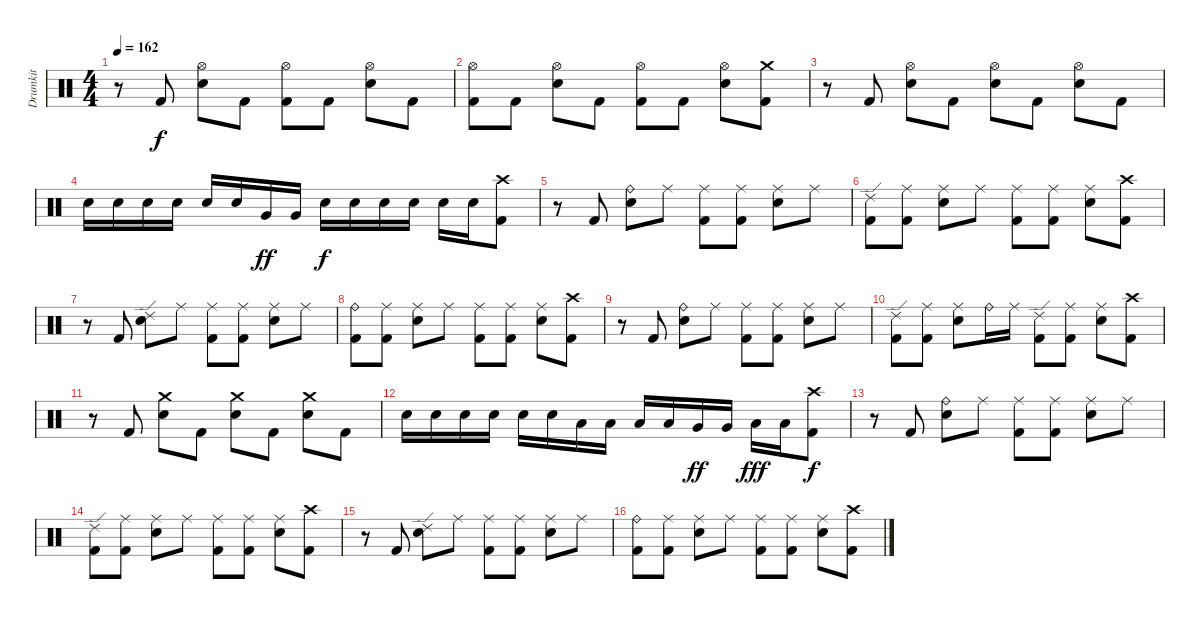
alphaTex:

\track ("Drumkit" "Drumkit") {instrument percussion}
\staff {score}
\articulation defaults
\ts (4 4)
\tempo 162
\clef neutral
\ks c
r.8{dy f} "Kick (hit) 2".8 ("Hi-Hat (open)" "Electric Snare (hit)").8 "Kick (hit) 2".8 ("Hi-Hat (open)" "Kick (hit) 2").8 "Kick (hit) 2".8 ("Hi-Hat (open)" "Electric Snare (hit)").8 "Kick (hit) 2".8 |
("Hi-Hat (open)" "Kick (hit) 2").8 "Kick (hit) 2".8 ("Hi-Hat (open)" "Electric Snare (hit)").8 "Kick (hit) 2".8 ("Hi-Hat (open)" "Kick (hit) 2").8 "Kick (hit) 2".8 ("Hi-Hat (open)" "Electric Snare (hit)").8 ("Crash medium (hit)" "Kick (hit) 2").8 |
r.8 "Kick (hit) 2".8 ("Hi-Hat (open)" "Electric Snare (hit)").8 "Kick (hit) 2".8 ("Hi-Hat (open)" "Electric Snare (hit)").8 "Kick (hit) 2".8 ("Hi-Hat (open)" "Electric Snare (hit)").8 "Kick (hit) 2".8 |
"Electric Snare (hit)".16 "Electric Snare (hit)".16 "Electric Snare (hit)".16 "Electric Snare (hit)".16 "Electric Snare (hit)".16 "Electric Snare (hit)".16 "Very Low Tom (hit)".16{dy ff} "Very Low Tom (hit)".16 "Electric Snare (hit)".16{dy f} "Electric Snare (hit)".16 "Electric Snare (hit)".16 "Electric Snare (hit)".16 "Electric Snare (hit)".16 "Electric Snare (hit)".16 ("Crash high (hit)" "Kick (hit) 2").8 |
r.8 "Kick (hit) 2".8 ("Ride (bell)" "Electric Snare (hit)").8 "Ride (middle)".8 ("Ride (middle)" "Kick (hit) 2").8 ("Ride (middle)" "Kick (hit) 2").8 ("Ride (middle)" "Electric Snare (hit)").8 "Ride (middle)".8 |
("Ride (edge) 2" "Kick (hit) 2").8 ("Ride (middle)" "Kick (hit) 2").8 ("Ride (middle)" "Electric Snare (hit)").8 "Ride (middle)".8 ("Ride (middle)" "Kick (hit) 2").8 ("Ride (middle)" "Kick (hit) 2").8 ("Ride (middle)" "Electric Snare (hit)").8 ("Crash high (hit)" "Kick (hit) 2").8 |
r.8 "Kick (hit) 2".8 ("Ride (edge) 2" "Electric Snare (hit)").8 "Ride (middle)".8 ("Ride (middle)" "Kick (hit) 2").8 ("Ride (middle)" "Kick (hit) 2").8 ("Ride (middle)" "Electric Snare (hit)").8 "Ride (middle)".8 |
("Ride (bell)" "Kick (hit) 2").8 ("Ride (middle)" "Kick (hit) 2").8 ("Ride (middle)" "Electric Snare (hit)").8 "Ride (middle)".8 ("Ride (middle)" "Kick (hit) 2").8 ("Ride (middle)" "Kick (hit) 2").8 ("Ride (middle)" "Electric Snare (hit)").8 ("Crash high (hit)" "Kick (hit) 2").8 |
r.8 "Kick (hit) 2".8 ("Ride (bell)" "Electric Snare (hit)").8 "Ride (middle)".8 ("Ride (middle)" "Kick (hit) 2").8 ("Ride (middle)" "Kick (hit) 2").8 ("Ride (middle)" "Electric Snare (hit)").8 "Ride (middle)".8 |
("Ride (edge) 2" "Kick (hit) 2").8 ("Ride (middle)" "Kick (hit) 2").8 ("Ride (middle)" "Electric Snare (hit)").8 "Ride (bell)".16 "Ride (middle)".16 ("Ride (edge) 2" "Kick (hit) 2").8 ("Ride (middle)" "Kick (hit) 2").8 ("Ride (middle)" "Electric Snare (hit)").8 ("Crash high (hit)" "Kick (hit) 2").8 |
r.8 "Kick (hit) 2".8 ("Crash medium (hit)" "Electric Snare (hit)").8 "Kick (hit) 2".8 ("Crash medium (hit)" "Electric Snare (hit)").8 "Kick (hit) 2".8 ("Crash medium (hit)" "Electric Snare (hit)").8 "Kick (hit) 2".8 |
"Electric Snare (hit)".16 "Electric Snare (hit)".16 "Electric Snare (hit)".16 "Electric Snare (hit)".16 "Electric Snare (hit)".16 "Electric Snare (hit)".16 "Low Tom (hit)".16 "Low Tom (hit)".16 "Low Tom (hit)".16 "Low Tom (hit)".16 "Very Low Tom (hit)".16{dy ff} "Very Low Tom (hit)".16 "Low Floor Tom (hit)".16{dy fff} "Low Floor Tom (hit)".16 ("Crash high (hit)" "Kick (hit) 2").8{dy f} |
r.8 "Kick (hit) 2".8 ("Ride (bell)" "Electric Snare (hit)").8 "Ride (middle)".8 ("Ride (middle)" "Kick (hit) 2").8 ("Ride (middle)" "Kick (hit) 2").8 ("Ride (middle)" "Electric Snare (hit)").8 "Ride (middle)".8 |
("Ride (edge) 2" "Kick (hit) 2").8 ("Ride (middle)" "Kick (hit) 2").8 ("Ride (middle)" "Electric Snare (hit)").8 "Ride (middle)".8 ("Ride (middle)" "Kick (hit) 2").8 ("Ride (middle)" "Kick (hit) 2").8 ("Ride (middle)" "Electric Snare (hit)").8 ("Crash high (hit)" "Kick (hit) 2").8 |
r.8 "Kick (hit) 2".8 ("Ride (edge) 2" "Electric Snare (hit)").8 "Ride (middle)".8 ("Ride (middle)" "Kick (hit) 2").8 ("Ride (middle)" "Kick (hit) 2").8 ("Ride (middle)" "Electric Snare (hit)").8 "Ride (middle)".8 |
("Ride (bell)" "Kick (hit) 2").8 ("Ride (middle)" "Kick (hit) 2").8 ("Ride (middle)" "Electric Snare (hit)").8 "Ride (middle)".8 ("Ride (middle)" "Kick (hit) 2").8 ("Ride (middle)" "Kick (hit) 2").8 ("Ride (middle)" "Electric Snare (hit)").8 ("Crash high (hit)" "Kick (hit) 2").8
